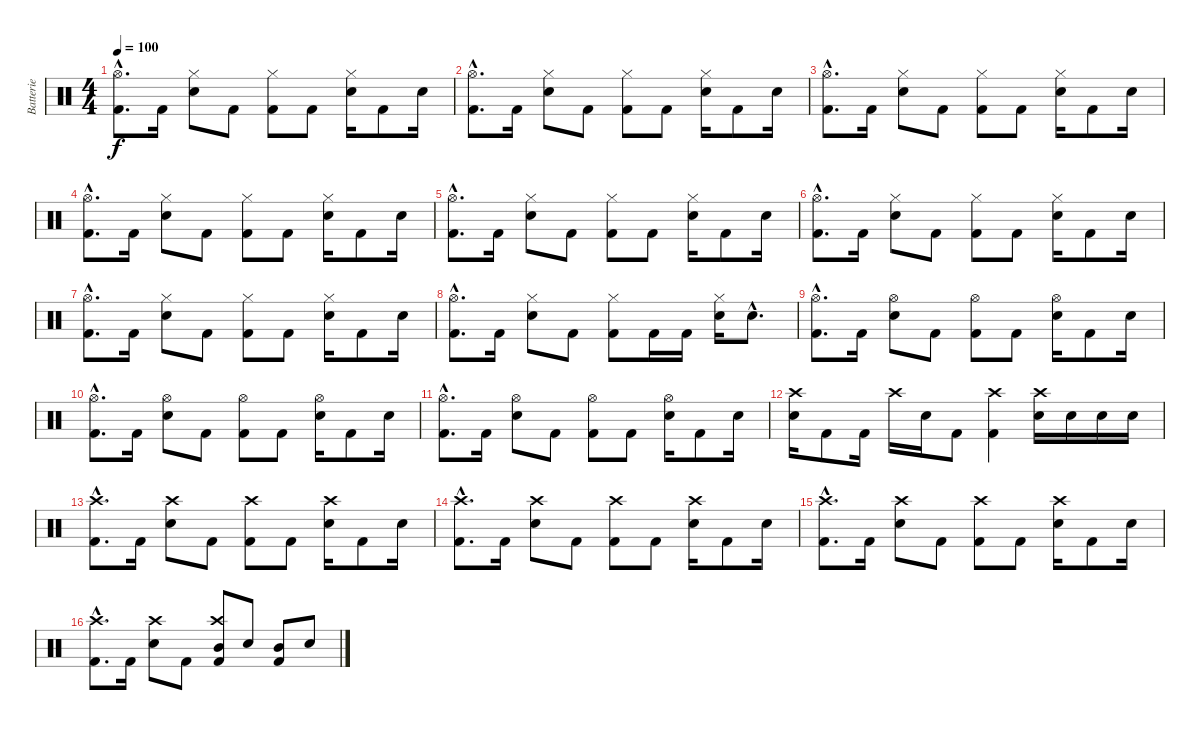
\track ("Batterie" "Batterie") {instrument percussion}
\staff {score}
\articulation defaults
\ts (4 4)
\tempo 100
\clef neutral
\ks c
("Hi-Hat (open)"{hac} "Kick (hit) 2"{hac}).8{d dy f} "Kick (hit) 2".16 ("Hi-Hat (closed)" "Snare (hit) 2").8 "Kick (hit) 2".8 ("Hi-Hat (closed)" "Kick (hit) 2").8 "Kick (hit) 2".8 ("Hi-Hat (closed)" "Snare (hit) 2").16 "Kick (hit) 2".8 "Snare (hit) 2".16 |
("Hi-Hat (open)"{hac} "Kick (hit) 2"{hac}).8{d} "Kick (hit) 2".16 ("Hi-Hat (closed)" "Snare (hit) 2").8 "Kick (hit) 2".8 ("Hi-Hat (closed)" "Kick (hit) 2").8 "Kick (hit) 2".8 ("Hi-Hat (closed)" "Snare (hit) 2").16 "Kick (hit) 2".8 "Snare (hit) 2".16 |
("Hi-Hat (open)"{hac} "Kick (hit) 2"{hac}).8{d} "Kick (hit) 2".16 ("Hi-Hat (closed)" "Snare (hit) 2").8 "Kick (hit) 2".8 ("Hi-Hat (closed)" "Kick (hit) 2").8 "Kick (hit) 2".8 ("Hi-Hat (closed)" "Snare (hit) 2").16 "Kick (hit) 2".8 "Snare (hit) 2".16 |
("Hi-Hat (open)"{hac} "Kick (hit) 2"{hac}).8{d} "Kick (hit) 2".16 ("Hi-Hat (closed)" "Snare (hit) 2").8 "Kick (hit) 2".8 ("Hi-Hat (closed)" "Kick (hit) 2").8 "Kick (hit) 2".8 ("Hi-Hat (closed)" "Snare (hit) 2").16 "Kick (hit) 2".8 "Snare (hit) 2".16 |
("Hi-Hat (open)"{hac} "Kick (hit) 2"{hac}).8{d} "Kick (hit) 2".16 ("Hi-Hat (closed)" "Snare (hit) 2").8 "Kick (hit) 2".8 ("Hi-Hat (closed)" "Kick (hit) 2").8 "Kick (hit) 2".8 ("Hi-Hat (closed)" "Snare (hit) 2").16 "Kick (hit) 2".8 "Snare (hit) 2".16 |
("Hi-Hat (open)"{hac} "Kick (hit) 2"{hac}).8{d} "Kick (hit) 2".16 ("Hi-Hat (closed)" "Snare (hit) 2").8 "Kick (hit) 2".8 ("Hi-Hat (closed)" "Kick (hit) 2").8 "Kick (hit) 2".8 ("Hi-Hat (closed)" "Snare (hit) 2").16 "Kick (hit) 2".8 "Snare (hit) 2".16 |
("Hi-Hat (open)"{hac} "Kick (hit) 2"{hac}).8{d} "Kick (hit) 2".16 ("Hi-Hat (closed)" "Snare (hit) 2").8 "Kick (hit) 2".8 ("Hi-Hat (closed)" "Kick (hit) 2").8 "Kick (hit) 2".8 ("Hi-Hat (closed)" "Snare (hit) 2").16 "Kick (hit) 2".8 "Snare (hit) 2".16 |
("Hi-Hat (open)"{hac} "Kick (hit) 2"{hac}).8{d} "Kick (hit) 2".16 ("Hi-Hat (closed)" "Snare (hit) 2").8 "Kick (hit) 2".8 ("Hi-Hat (closed)" "Kick (hit) 2").8 "Kick (hit) 2".16 "Kick (hit) 2".16 ("Hi-Hat (closed)" "Snare (hit) 2").16 "Snare (hit) 2"{hac}.8{d} |
("Hi-Hat (open)"{hac} "Kick (hit) 2"{hac}).8{d} "Kick (hit) 2".16 ("Hi-Hat (open)" "Snare (hit) 2").8 "Kick (hit) 2".8 ("Hi-Hat (open)" "Kick (hit) 2").8 "Kick (hit) 2".8 ("Hi-Hat (open)" "Snare (hit) 2").16 "Kick (hit) 2".8 "Snare (hit) 2".16 |
("Hi-Hat (open)"{hac} "Kick (hit) 2"{hac}).8{d} "Kick (hit) 2".16 ("Hi-Hat (open)" "Snare (hit) 2").8 "Kick (hit) 2".8 ("Hi-Hat (open)" "Kick (hit) 2").8 "Kick (hit) 2".8 ("Hi-Hat (open)" "Snare (hit) 2").16 "Kick (hit) 2".8 "Snare (hit) 2".16 |
("Hi-Hat (open)"{hac} "Kick (hit) 2"{hac}).8{d} "Kick (hit) 2".16 ("Hi-Hat (open)" "Snare (hit) 2").8 "Kick (hit) 2".8 ("Hi-Hat (open)" "Kick (hit) 2").8 "Kick (hit) 2".8 ("Hi-Hat (open)" "Snare (hit) 2").16 "Kick (hit) 2".8 "Snare (hit) 2".16 |
("Crash high (hit)" "Snare (hit) 2").16 "Kick (hit) 2".8 "Kick (hit) 2".16 "Crash high (hit)".16 "Snare (hit) 2".16 "Kick (hit) 2".8 ("Crash high (hit)" "Kick (hit) 2").4 ("Crash high (hit)" "Snare (hit) 2").16 "Snare (hit) 2".16 "Snare (hit) 2".16 "Snare (hit) 2".16 |
("Crash high (hit)"{hac} "Kick (hit) 2"{hac}).8{d} "Kick (hit) 2".16 ("Crash high (hit)" "Snare (hit) 2").8 "Kick (hit) 2".8 ("Crash high (hit)" "Kick (hit) 2").8 "Kick (hit) 2".8 ("Crash high (hit)" "Snare (hit) 2").16 "Kick (hit) 2".8 "Snare (hit) 2".16 |
("Crash high (hit)"{hac} "Kick (hit) 2"{hac}).8{d} "Kick (hit) 2".16 ("Crash high (hit)" "Snare (hit) 2").8 "Kick (hit) 2".8 ("Crash high (hit)" "Kick (hit) 2").8 "Kick (hit) 2".8 ("Crash high (hit)" "Snare (hit) 2").16 "Kick (hit) 2".8 "Snare (hit) 2".16 |
("Crash high (hit)"{hac} "Kick (hit) 2"{hac}).8{d} "Kick (hit) 2".16 ("Crash high (hit)" "Snare (hit) 2").8 "Kick (hit) 2".8 ("Crash high (hit)" "Kick (hit) 2").8 "Kick (hit) 2".8 ("Crash high (hit)" "Snare (hit) 2").16 "Kick (hit) 2".8 "Snare (hit) 2".16 |
("Crash high (hit)"{hac} "Kick (hit) 2"{hac}).8{d} "Kick (hit) 2".16 ("Crash high (hit)" "Snare (hit) 2").8 "Kick (hit) 2".8 ("Crash high (hit)" "Mid Tom (hit)" "Kick (hit) 2"{tr (36 32)}).8 "Snare (hit) 2"{tr (38 32)}.8 ("Mid Tom (hit)" "Kick (hit) 2"{tr (36 32)}).8 "Snare (hit) 2"{tr (38 32)}.8
